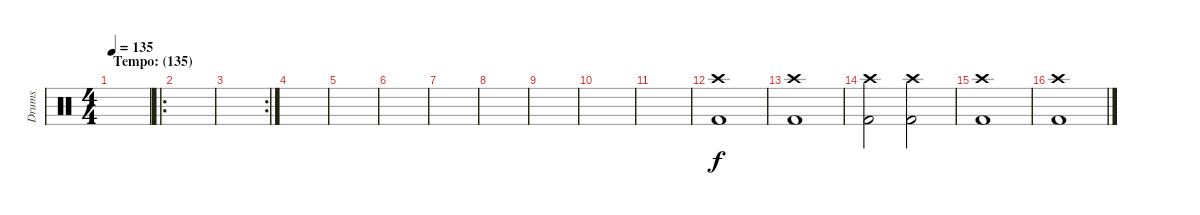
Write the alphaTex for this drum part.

\track ("Drums" "Drums") {instrument percussion}
\staff {score}
\articulation defaults
\ts (4 4)
\section ("" "Tempo: (135)")
\tempo 135
\clef neutral
\ks c
|
\ro
|
\rc 2
|
|
|
|
|
|
|
|
|
("Crash high (hit)" "Kick (hit) 2").1 |
("Crash high (hit)" "Kick (hit) 2").1 |
("Crash high (hit)" "Kick (hit) 2").2 ("Crash high (hit)" "Kick (hit) 2").2 |
("Crash high (hit)" "Kick (hit) 2").1 |
("Crash high (hit)" "Kick (hit) 2").1
